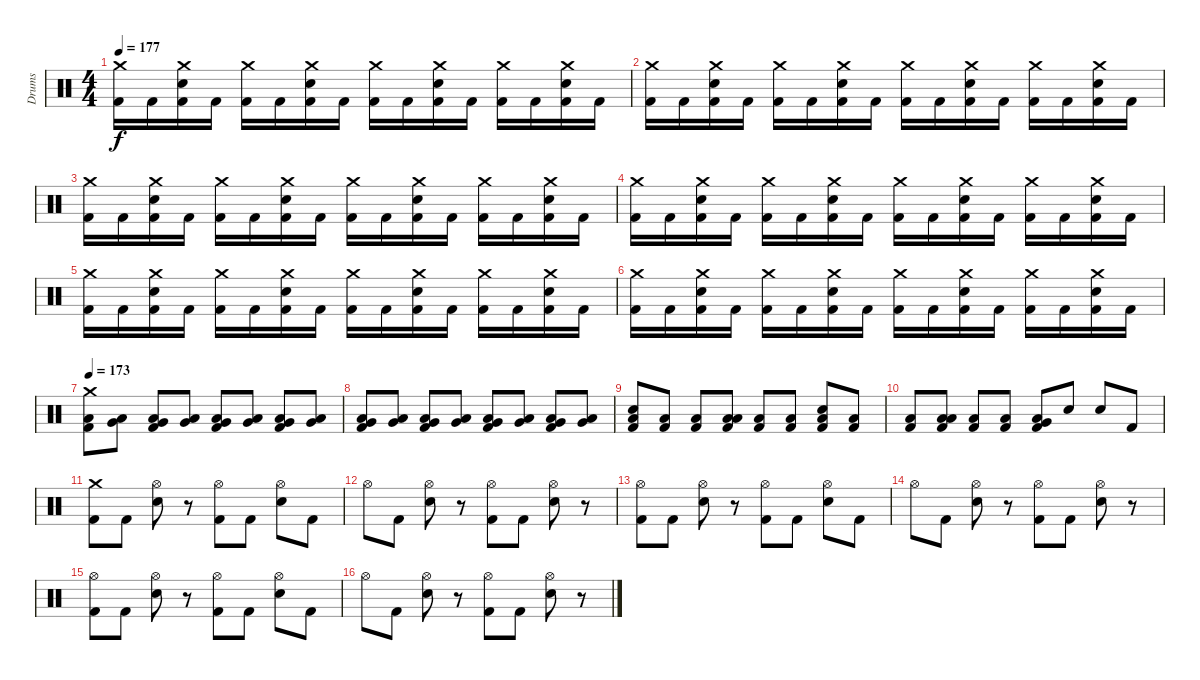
\track ("Drums" "Drums") {instrument percussion}
\staff {score}
\articulation defaults
\ts (4 4)
\tempo 177
\clef neutral
\ks c
("Crash medium (hit)" "Kick (hit) 2").16{dy f} "Kick (hit) 2".16 ("Crash medium (hit)" "Snare (hit) 2" "Kick (hit) 2").16 "Kick (hit) 2".16 ("Crash medium (hit)" "Kick (hit) 2").16 "Kick (hit) 2".16 ("Crash medium (hit)" "Snare (hit) 2" "Kick (hit) 2").16 "Kick (hit) 2".16 ("Crash medium (hit)" "Kick (hit) 2").16 "Kick (hit) 2".16 ("Crash medium (hit)" "Snare (hit) 2" "Kick (hit) 2").16 "Kick (hit) 2".16 ("Crash medium (hit)" "Kick (hit) 2").16 "Kick (hit) 2".16 ("Crash medium (hit)" "Snare (hit) 2" "Kick (hit) 2").16 "Kick (hit) 2".16 |
("Crash medium (hit)" "Kick (hit) 2").16 "Kick (hit) 2".16 ("Crash medium (hit)" "Snare (hit) 2" "Kick (hit) 2").16 "Kick (hit) 2".16 ("Crash medium (hit)" "Kick (hit) 2").16 "Kick (hit) 2".16 ("Crash medium (hit)" "Snare (hit) 2" "Kick (hit) 2").16 "Kick (hit) 2".16 ("Crash medium (hit)" "Kick (hit) 2").16 "Kick (hit) 2".16 ("Crash medium (hit)" "Snare (hit) 2" "Kick (hit) 2").16 "Kick (hit) 2".16 ("Crash medium (hit)" "Kick (hit) 2").16 "Kick (hit) 2".16 ("Crash medium (hit)" "Snare (hit) 2" "Kick (hit) 2").16 "Kick (hit) 2".16 |
("Crash medium (hit)" "Kick (hit) 2").16 "Kick (hit) 2".16 ("Crash medium (hit)" "Snare (hit) 2" "Kick (hit) 2").16 "Kick (hit) 2".16 ("Crash medium (hit)" "Kick (hit) 2").16 "Kick (hit) 2".16 ("Crash medium (hit)" "Snare (hit) 2" "Kick (hit) 2").16 "Kick (hit) 2".16 ("Crash medium (hit)" "Kick (hit) 2").16 "Kick (hit) 2".16 ("Crash medium (hit)" "Snare (hit) 2" "Kick (hit) 2").16 "Kick (hit) 2".16 ("Crash medium (hit)" "Kick (hit) 2").16 "Kick (hit) 2".16 ("Crash medium (hit)" "Snare (hit) 2" "Kick (hit) 2").16 "Kick (hit) 2".16 |
("Crash medium (hit)" "Kick (hit) 2").16 "Kick (hit) 2".16 ("Crash medium (hit)" "Snare (hit) 2" "Kick (hit) 2").16 "Kick (hit) 2".16 ("Crash medium (hit)" "Kick (hit) 2").16 "Kick (hit) 2".16 ("Crash medium (hit)" "Snare (hit) 2" "Kick (hit) 2").16 "Kick (hit) 2".16 ("Crash medium (hit)" "Kick (hit) 2").16 "Kick (hit) 2".16 ("Crash medium (hit)" "Snare (hit) 2" "Kick (hit) 2").16 "Kick (hit) 2".16 ("Crash medium (hit)" "Kick (hit) 2").16 "Kick (hit) 2".16 ("Crash medium (hit)" "Snare (hit) 2" "Kick (hit) 2").16 "Kick (hit) 2".16 |
("Crash medium (hit)" "Kick (hit) 2").16 "Kick (hit) 2".16 ("Crash medium (hit)" "Snare (hit) 2" "Kick (hit) 2").16 "Kick (hit) 2".16 ("Crash medium (hit)" "Kick (hit) 2").16 "Kick (hit) 2".16 ("Crash medium (hit)" "Snare (hit) 2" "Kick (hit) 2").16 "Kick (hit) 2".16 ("Crash medium (hit)" "Kick (hit) 2").16 "Kick (hit) 2".16 ("Crash medium (hit)" "Snare (hit) 2" "Kick (hit) 2").16 "Kick (hit) 2".16 ("Crash medium (hit)" "Kick (hit) 2").16 "Kick (hit) 2".16 ("Crash medium (hit)" "Snare (hit) 2" "Kick (hit) 2").16 "Kick (hit) 2".16 |
("Crash medium (hit)" "Kick (hit) 2").16 "Kick (hit) 2".16 ("Crash medium (hit)" "Snare (hit) 2" "Kick (hit) 2").16 "Kick (hit) 2".16 ("Crash medium (hit)" "Kick (hit) 2").16 "Kick (hit) 2".16 ("Crash medium (hit)" "Snare (hit) 2" "Kick (hit) 2").16 "Kick (hit) 2".16 ("Crash medium (hit)" "Kick (hit) 2").16 "Kick (hit) 2".16 ("Crash medium (hit)" "Snare (hit) 2" "Kick (hit) 2").16 "Kick (hit) 2".16 ("Crash medium (hit)" "Kick (hit) 2").16 "Kick (hit) 2".16 ("Crash medium (hit)" "Snare (hit) 2" "Kick (hit) 2").16 "Kick (hit) 2".16 |
\tempo 173
("Crash medium (hit)" "Low Floor Tom (hit)" "Kick (hit) 2").8 ("Very Low Tom (hit)" "Low Floor Tom (hit)").8 ("Very Low Tom (hit)" "Low Floor Tom (hit)" "Kick (hit) 2").8 ("Very Low Tom (hit)" "Low Floor Tom (hit)").8 ("Very Low Tom (hit)" "Low Floor Tom (hit)" "Kick (hit) 2").8 ("Very Low Tom (hit)" "Low Floor Tom (hit)").8 ("Very Low Tom (hit)" "Low Floor Tom (hit)" "Kick (hit) 2").8 ("Very Low Tom (hit)" "Low Floor Tom (hit)").8 |
("Very Low Tom (hit)" "Low Floor Tom (hit)" "Kick (hit) 2").8 ("Very Low Tom (hit)" "Low Floor Tom (hit)").8 ("Very Low Tom (hit)" "Low Floor Tom (hit)" "Kick (hit) 2").8 ("Very Low Tom (hit)" "Low Floor Tom (hit)").8 ("Very Low Tom (hit)" "Low Floor Tom (hit)" "Kick (hit) 2").8 ("Very Low Tom (hit)" "Low Floor Tom (hit)").8 ("Very Low Tom (hit)" "Low Floor Tom (hit)" "Kick (hit) 2").8 ("Very Low Tom (hit)" "Low Floor Tom (hit)").8 |
("Snare (hit) 2" "Low Floor Tom (hit)" "Kick (hit) 2").8 ("Low Floor Tom (hit)" "Kick (hit) 2").8 ("Low Floor Tom (hit)" "Kick (hit) 2").8 ("Low Tom (hit)" "Low Floor Tom (hit)" "Kick (hit) 2").8 ("Low Floor Tom (hit)" "Kick (hit) 2").8 ("Low Floor Tom (hit)" "Kick (hit) 2").8 ("Snare (hit) 2" "Low Floor Tom (hit)" "Kick (hit) 2").8 ("Low Floor Tom (hit)" "Kick (hit) 2").8 |
("Low Floor Tom (hit)" "Kick (hit) 2").8 ("Low Tom (hit)" "Low Floor Tom (hit)" "Kick (hit) 2").8 ("Low Floor Tom (hit)" "Kick (hit) 2").8 ("Low Floor Tom (hit)" "Kick (hit) 2").8 ("Very Low Tom (hit)" "Low Floor Tom (hit)" "Kick (hit) 2").8 "Snare (hit) 2".8 "Snare (hit) 2".8 "Kick (hit) 2".8 |
("Crash medium (hit)" "Kick (hit) 2").8 "Kick (hit) 2".8 ("Hi-Hat (open)" "Snare (hit) 2").8 r.8 ("Hi-Hat (open)" "Kick (hit) 2").8 "Kick (hit) 2".8 ("Hi-Hat (open)" "Snare (hit) 2").8 "Kick (hit) 2".8 |
"Hi-Hat (open)".8 "Kick (hit) 2".8 ("Hi-Hat (open)" "Snare (hit) 2").8 r.8 ("Hi-Hat (open)" "Kick (hit) 2").8 "Kick (hit) 2".8 ("Hi-Hat (open)" "Snare (hit) 2").8 r.8 |
("Hi-Hat (open)" "Kick (hit) 2").8 "Kick (hit) 2".8 ("Hi-Hat (open)" "Snare (hit) 2").8 r.8 ("Hi-Hat (open)" "Kick (hit) 2").8 "Kick (hit) 2".8 ("Hi-Hat (open)" "Snare (hit) 2").8 "Kick (hit) 2".8 |
"Hi-Hat (open)".8 "Kick (hit) 2".8 ("Hi-Hat (open)" "Snare (hit) 2").8 r.8 ("Hi-Hat (open)" "Kick (hit) 2").8 "Kick (hit) 2".8 ("Hi-Hat (open)" "Snare (hit) 2").8 r.8 |
("Hi-Hat (open)" "Kick (hit) 2").8 "Kick (hit) 2".8 ("Hi-Hat (open)" "Snare (hit) 2").8 r.8 ("Hi-Hat (open)" "Kick (hit) 2").8 "Kick (hit) 2".8 ("Hi-Hat (open)" "Snare (hit) 2").8 "Kick (hit) 2".8 |
"Hi-Hat (open)".8 "Kick (hit) 2".8 ("Hi-Hat (open)" "Snare (hit) 2").8 r.8 ("Hi-Hat (open)" "Kick (hit) 2").8 "Kick (hit) 2".8 ("Hi-Hat (open)" "Snare (hit) 2").8 r.8
